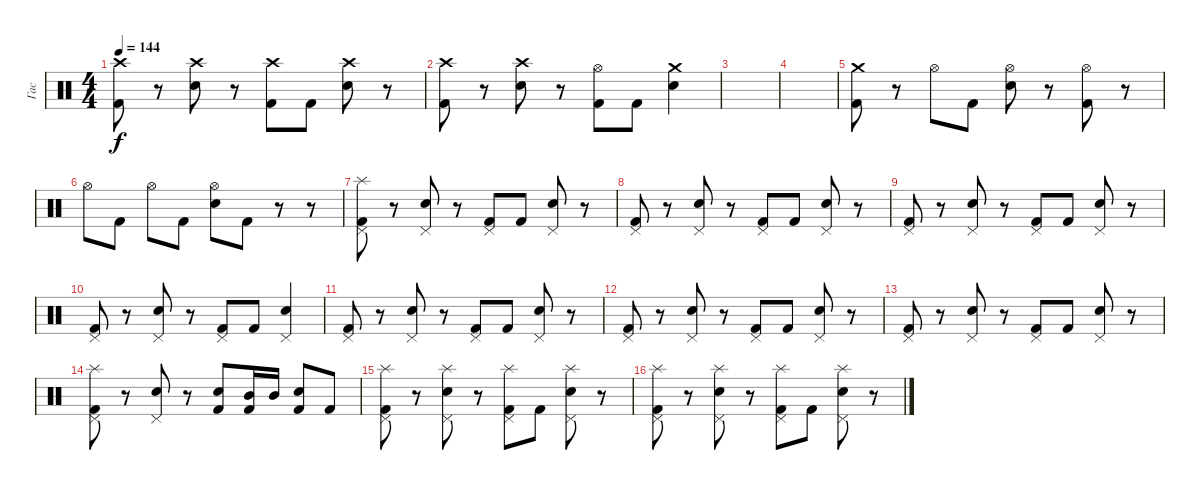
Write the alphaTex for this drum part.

\track ("Гас" "Гас") {instrument percussion}
\staff {score}
\articulation defaults
\ts (4 4)
\tempo 144
\clef neutral
\ks c
("Crash high (hit)" "Kick (hit) 2").8{dy f} r.8 ("Crash high (hit)" "Electric Snare (hit)").8 r.8 ("Crash high (hit)" "Kick (hit) 2").8 "Kick (hit) 2".8 ("Crash high (hit)" "Electric Snare (hit)").8 r.8 |
("Crash high (hit)" "Kick (hit) 2").8 r.8 ("Crash high (hit)" "Electric Snare (hit)").8 r.8 ("Hi-Hat (open)" "Kick (hit) 2").8 "Kick (hit) 2".8 ("Crash medium (hit)" "Electric Snare (hit)").4 |
|
|
("Crash medium (hit)" "Kick (hit) 2").8 r.8 "Hi-Hat (open)".8 "Kick (hit) 2".8 ("Hi-Hat (open)" "Electric Snare (hit)").8 r.8 ("Hi-Hat (open)" "Kick (hit) 2").8 r.8 |
"Hi-Hat (open)".8 "Kick (hit) 2".8 "Hi-Hat (open)".8 "Kick (hit) 2".8 ("Hi-Hat (open)" "Electric Snare (hit)").8 "Kick (hit) 2".8 r.8 r.8 |
("Pedal Hi-Hat (hit)" "Splash (hit)" "Kick (hit) 2").8 r.8 ("Pedal Hi-Hat (hit)" "Electric Snare (hit)").8 r.8 ("Pedal Hi-Hat (hit)" "Kick (hit) 2").8 "Kick (hit) 2".8 ("Pedal Hi-Hat (hit)" "Electric Snare (hit)").8 r.8 |
("Pedal Hi-Hat (hit)" "Kick (hit) 2").8 r.8 ("Pedal Hi-Hat (hit)" "Electric Snare (hit)").8 r.8 ("Pedal Hi-Hat (hit)" "Kick (hit) 2").8 "Kick (hit) 2".8 ("Pedal Hi-Hat (hit)" "Electric Snare (hit)").8 r.8 |
("Pedal Hi-Hat (hit)" "Kick (hit) 2").8 r.8 ("Pedal Hi-Hat (hit)" "Electric Snare (hit)").8 r.8 ("Pedal Hi-Hat (hit)" "Kick (hit) 2").8 "Kick (hit) 2".8 ("Pedal Hi-Hat (hit)" "Electric Snare (hit)").8 r.8 |
("Pedal Hi-Hat (hit)" "Kick (hit) 2").8 r.8 ("Pedal Hi-Hat (hit)" "Electric Snare (hit)").8 r.8 ("Pedal Hi-Hat (hit)" "Kick (hit) 2").8 "Kick (hit) 2".8 ("Pedal Hi-Hat (hit)" "Electric Snare (hit)").4 |
("Pedal Hi-Hat (hit)" "Kick (hit) 2").8 r.8 ("Pedal Hi-Hat (hit)" "Electric Snare (hit)").8 r.8 ("Pedal Hi-Hat (hit)" "Kick (hit) 2").8 "Kick (hit) 2".8 ("Pedal Hi-Hat (hit)" "Electric Snare (hit)").8 r.8 |
("Pedal Hi-Hat (hit)" "Kick (hit) 2").8 r.8 ("Pedal Hi-Hat (hit)" "Electric Snare (hit)").8 r.8 ("Pedal Hi-Hat (hit)" "Kick (hit) 2").8 "Kick (hit) 2".8 ("Pedal Hi-Hat (hit)" "Electric Snare (hit)").8 r.8 |
("Pedal Hi-Hat (hit)" "Kick (hit) 2").8 r.8 ("Pedal Hi-Hat (hit)" "Electric Snare (hit)").8 r.8 ("Pedal Hi-Hat (hit)" "Kick (hit) 2").8 "Kick (hit) 2".8 ("Pedal Hi-Hat (hit)" "Electric Snare (hit)").8 r.8 |
("Pedal Hi-Hat (hit)" "Splash (hit)" "Kick (hit) 2").8 r.8 ("Pedal Hi-Hat (hit)" "Electric Snare (hit)").8 r.8 ("Electric Snare (hit)" "Kick (hit) 2").8 ("Mid Tom (hit)" "Kick (hit) 2").16 "Mid Tom (hit)".16 ("Electric Snare (hit)" "Kick (hit) 2").8 "Kick (hit) 2".8 |
("Pedal Hi-Hat (hit)" "Splash (hit)" "Kick (hit) 2").8 r.8 ("Pedal Hi-Hat (hit)" "Splash (hit)" "Electric Snare (hit)").8 r.8 ("Pedal Hi-Hat (hit)" "Splash (hit)" "Kick (hit) 2").8 "Kick (hit) 2".8 ("Pedal Hi-Hat (hit)" "Splash (hit)" "Electric Snare (hit)").8 r.8 |
("Pedal Hi-Hat (hit)" "Splash (hit)" "Kick (hit) 2").8 r.8 ("Pedal Hi-Hat (hit)" "Splash (hit)" "Electric Snare (hit)").8 r.8 ("Pedal Hi-Hat (hit)" "Splash (hit)" "Kick (hit) 2").8 "Kick (hit) 2".8 ("Pedal Hi-Hat (hit)" "Splash (hit)" "Electric Snare (hit)").8 r.8
